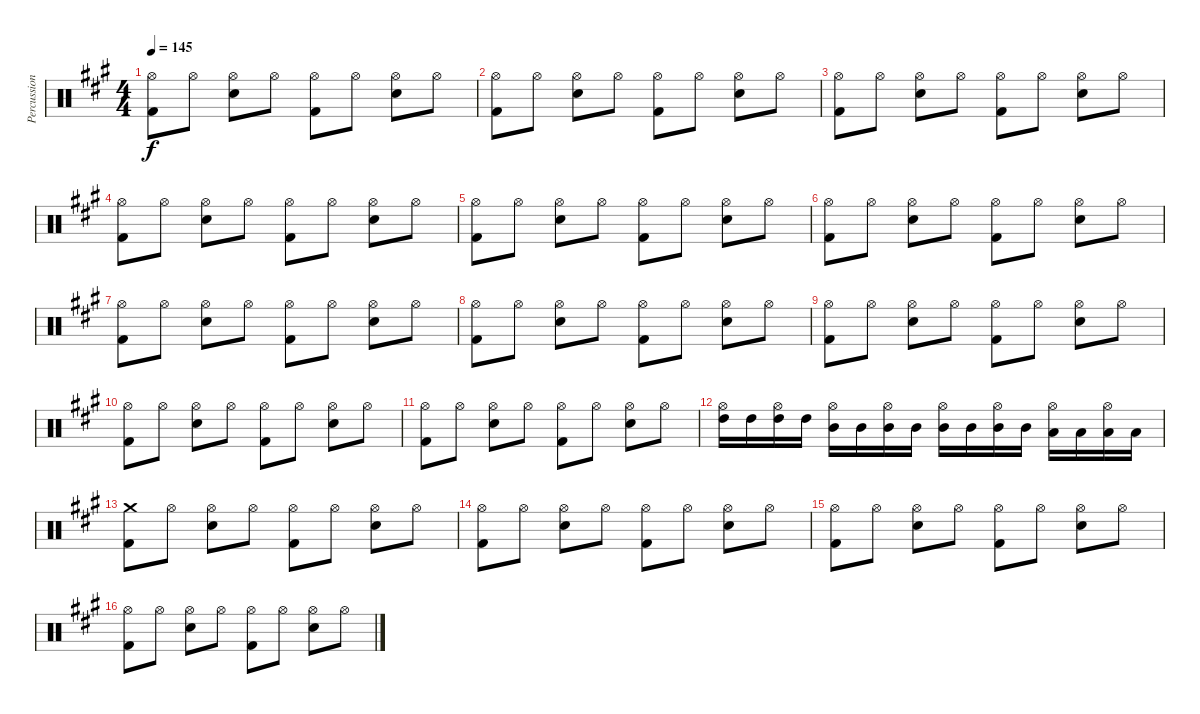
\track ("Percussion" "Percussion") {instrument percussion}
\staff {score}
\articulation defaults
\ts (4 4)
\tempo 145
\clef neutral
\ks a
("Hi-Hat (open)" "Kick (hit) 2").8{dy f} "Hi-Hat (open)".8 ("Hi-Hat (open)" "Snare (hit) 2").8 "Hi-Hat (open)".8 ("Hi-Hat (open)" "Kick (hit) 2").8 "Hi-Hat (open)".8 ("Hi-Hat (open)" "Snare (hit) 2").8 "Hi-Hat (open)".8 |
("Hi-Hat (open)" "Kick (hit) 2").8 "Hi-Hat (open)".8 ("Hi-Hat (open)" "Snare (hit) 2").8 "Hi-Hat (open)".8 ("Hi-Hat (open)" "Kick (hit) 2").8 "Hi-Hat (open)".8 ("Hi-Hat (open)" "Snare (hit) 2").8 "Hi-Hat (open)".8 |
("Hi-Hat (open)" "Kick (hit) 2").8 "Hi-Hat (open)".8 ("Hi-Hat (open)" "Snare (hit) 2").8 "Hi-Hat (open)".8 ("Hi-Hat (open)" "Kick (hit) 2").8 "Hi-Hat (open)".8 ("Hi-Hat (open)" "Snare (hit) 2").8 "Hi-Hat (open)".8 |
("Hi-Hat (open)" "Kick (hit) 2").8 "Hi-Hat (open)".8 ("Hi-Hat (open)" "Snare (hit) 2").8 "Hi-Hat (open)".8 ("Hi-Hat (open)" "Kick (hit) 2").8 "Hi-Hat (open)".8 ("Hi-Hat (open)" "Snare (hit) 2").8 "Hi-Hat (open)".8 |
("Hi-Hat (open)" "Kick (hit) 2").8 "Hi-Hat (open)".8 ("Hi-Hat (open)" "Snare (hit) 2").8 "Hi-Hat (open)".8 ("Hi-Hat (open)" "Kick (hit) 2").8 "Hi-Hat (open)".8 ("Hi-Hat (open)" "Snare (hit) 2").8 "Hi-Hat (open)".8 |
("Hi-Hat (open)" "Kick (hit) 2").8 "Hi-Hat (open)".8 ("Hi-Hat (open)" "Snare (hit) 2").8 "Hi-Hat (open)".8 ("Hi-Hat (open)" "Kick (hit) 2").8 "Hi-Hat (open)".8 ("Hi-Hat (open)" "Snare (hit) 2").8 "Hi-Hat (open)".8 |
("Hi-Hat (open)" "Kick (hit) 2").8 "Hi-Hat (open)".8 ("Hi-Hat (open)" "Snare (hit) 2").8 "Hi-Hat (open)".8 ("Hi-Hat (open)" "Kick (hit) 2").8 "Hi-Hat (open)".8 ("Hi-Hat (open)" "Snare (hit) 2").8 "Hi-Hat (open)".8 |
("Hi-Hat (open)" "Kick (hit) 2").8 "Hi-Hat (open)".8 ("Hi-Hat (open)" "Snare (hit) 2").8 "Hi-Hat (open)".8 ("Hi-Hat (open)" "Kick (hit) 2").8 "Hi-Hat (open)".8 ("Hi-Hat (open)" "Snare (hit) 2").8 "Hi-Hat (open)".8 |
("Hi-Hat (open)" "Kick (hit) 2").8 "Hi-Hat (open)".8 ("Hi-Hat (open)" "Snare (hit) 2").8 "Hi-Hat (open)".8 ("Hi-Hat (open)" "Kick (hit) 2").8 "Hi-Hat (open)".8 ("Hi-Hat (open)" "Snare (hit) 2").8 "Hi-Hat (open)".8 |
("Hi-Hat (open)" "Kick (hit) 2").8 "Hi-Hat (open)".8 ("Hi-Hat (open)" "Snare (hit) 2").8 "Hi-Hat (open)".8 ("Hi-Hat (open)" "Kick (hit) 2").8 "Hi-Hat (open)".8 ("Hi-Hat (open)" "Snare (hit) 2").8 "Hi-Hat (open)".8 |
("Hi-Hat (open)" "Kick (hit) 2").8 "Hi-Hat (open)".8 ("Hi-Hat (open)" "Snare (hit) 2").8 "Hi-Hat (open)".8 ("Hi-Hat (open)" "Kick (hit) 2").8 "Hi-Hat (open)".8 ("Hi-Hat (open)" "Snare (hit) 2").8 "Hi-Hat (open)".8 |
("Hi-Hat (open)" "High Tom (hit)").16 "High Tom (hit)".16 ("Hi-Hat (open)" "High Tom (hit)").16 "High Tom (hit)".16 ("Hi-Hat (open)" "Mid Tom (hit)").16 "Mid Tom (hit)".16 ("Hi-Hat (open)" "Mid Tom (hit)").16 "Mid Tom (hit)".16 ("Hi-Hat (open)" "Mid Tom (hit)").16 "Mid Tom (hit)".16 ("Hi-Hat (open)" "Mid Tom (hit)").16 "Mid Tom (hit)".16 ("Hi-Hat (open)" "Low Tom (hit)").16 "Low Tom (hit)".16 ("Hi-Hat (open)" "Low Tom (hit)").16 "Low Tom (hit)".16 |
("Crash medium (hit)" "Kick (hit) 2").8 "Hi-Hat (open)".8 ("Hi-Hat (open)" "Snare (hit) 2").8 "Hi-Hat (open)".8 ("Hi-Hat (open)" "Kick (hit) 2").8 "Hi-Hat (open)".8 ("Hi-Hat (open)" "Snare (hit) 2").8 "Hi-Hat (open)".8 |
("Hi-Hat (open)" "Kick (hit) 2").8 "Hi-Hat (open)".8 ("Hi-Hat (open)" "Snare (hit) 2").8 "Hi-Hat (open)".8 ("Hi-Hat (open)" "Kick (hit) 2").8 "Hi-Hat (open)".8 ("Hi-Hat (open)" "Snare (hit) 2").8 "Hi-Hat (open)".8 |
("Hi-Hat (open)" "Kick (hit) 2").8 "Hi-Hat (open)".8 ("Hi-Hat (open)" "Snare (hit) 2").8 "Hi-Hat (open)".8 ("Hi-Hat (open)" "Kick (hit) 2").8 "Hi-Hat (open)".8 ("Hi-Hat (open)" "Snare (hit) 2").8 "Hi-Hat (open)".8 |
("Hi-Hat (open)" "Kick (hit) 2").8 "Hi-Hat (open)".8 ("Hi-Hat (open)" "Snare (hit) 2").8 "Hi-Hat (open)".8 ("Hi-Hat (open)" "Kick (hit) 2").8 "Hi-Hat (open)".8 ("Hi-Hat (open)" "Snare (hit) 2").8 "Hi-Hat (open)".8
